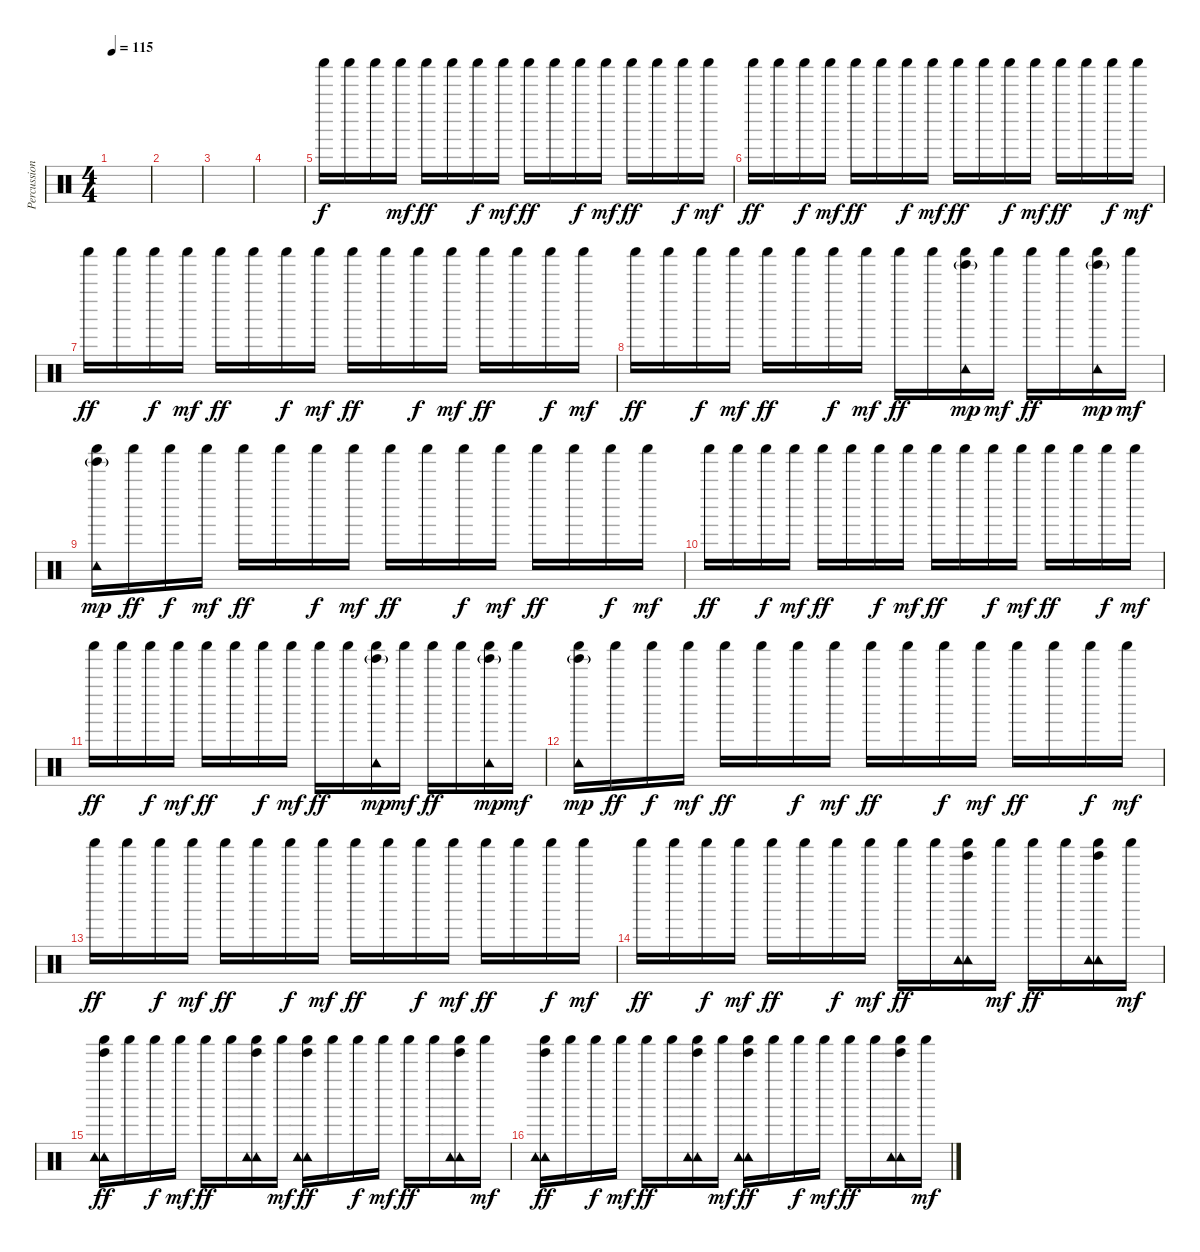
\track ("Percussion" "Percussion") {instrument percussion}
\staff {score}
\articulation defaults
\ts (4 4)
\tempo 115
\clef neutral
\ks c
|
|
|
|
"Shaker (hit)".16 "Shaker (hit)".16 "Shaker (hit)".16{dy f} "Shaker (hit)".16{dy mf} "Shaker (hit)".16{dy ff} "Shaker (hit)".16 "Shaker (hit)".16{dy f} "Shaker (hit)".16{dy mf} "Shaker (hit)".16{dy ff} "Shaker (hit)".16 "Shaker (hit)".16{dy f} "Shaker (hit)".16{dy mf} "Shaker (hit)".16{dy ff} "Shaker (hit)".16 "Shaker (hit)".16{dy f} "Shaker (hit)".16{dy mf} |
"Shaker (hit)".16{dy ff} "Shaker (hit)".16 "Shaker (hit)".16{dy f} "Shaker (hit)".16{dy mf} "Shaker (hit)".16{dy ff} "Shaker (hit)".16 "Shaker (hit)".16{dy f} "Shaker (hit)".16{dy mf} "Shaker (hit)".16{dy ff} "Shaker (hit)".16 "Shaker (hit)".16{dy f} "Shaker (hit)".16{dy mf} "Shaker (hit)".16{dy ff} "Shaker (hit)".16 "Shaker (hit)".16{dy f} "Shaker (hit)".16{dy mf} |
"Shaker (hit)".16{dy ff} "Shaker (hit)".16 "Shaker (hit)".16{dy f} "Shaker (hit)".16{dy mf} "Shaker (hit)".16{dy ff} "Shaker (hit)".16 "Shaker (hit)".16{dy f} "Shaker (hit)".16{dy mf} "Shaker (hit)".16{dy ff} "Shaker (hit)".16 "Shaker (hit)".16{dy f} "Shaker (hit)".16{dy mf} "Shaker (hit)".16{dy ff} "Shaker (hit)".16 "Shaker (hit)".16{dy f} "Shaker (hit)".16{dy mf} |
"Shaker (hit)".16{dy ff} "Shaker (hit)".16 "Shaker (hit)".16{dy f} "Shaker (hit)".16{dy mf} "Shaker (hit)".16{dy ff} "Shaker (hit)".16 "Shaker (hit)".16{dy f} "Shaker (hit)".16{dy mf} "Shaker (hit)".16{dy ff} "Shaker (hit)".16 ("Shaker (hit)" "Tambourine (hit)" "Tinkle Bell (hit)"{g}).16{dy mp} "Shaker (hit)".16{dy mf} "Shaker (hit)".16{dy ff} "Shaker (hit)".16 ("Shaker (hit)" "Tambourine (hit)" "Tinkle Bell (hit)"{g}).16{dy mp} "Shaker (hit)".16{dy mf} |
("Shaker (hit)" "Tambourine (hit)" "Tinkle Bell (hit)"{g}).16{dy mp} "Shaker (hit)".16{dy ff} "Shaker (hit)".16{dy f} "Shaker (hit)".16{dy mf} "Shaker (hit)".16{dy ff} "Shaker (hit)".16 "Shaker (hit)".16{dy f} "Shaker (hit)".16{dy mf} "Shaker (hit)".16{dy ff} "Shaker (hit)".16 "Shaker (hit)".16{dy f} "Shaker (hit)".16{dy mf} "Shaker (hit)".16{dy ff} "Shaker (hit)".16 "Shaker (hit)".16{dy f} "Shaker (hit)".16{dy mf} |
"Shaker (hit)".16{dy ff} "Shaker (hit)".16 "Shaker (hit)".16{dy f} "Shaker (hit)".16{dy mf} "Shaker (hit)".16{dy ff} "Shaker (hit)".16 "Shaker (hit)".16{dy f} "Shaker (hit)".16{dy mf} "Shaker (hit)".16{dy ff} "Shaker (hit)".16 "Shaker (hit)".16{dy f} "Shaker (hit)".16{dy mf} "Shaker (hit)".16{dy ff} "Shaker (hit)".16 "Shaker (hit)".16{dy f} "Shaker (hit)".16{dy mf} |
"Shaker (hit)".16{dy ff} "Shaker (hit)".16 "Shaker (hit)".16{dy f} "Shaker (hit)".16{dy mf} "Shaker (hit)".16{dy ff} "Shaker (hit)".16 "Shaker (hit)".16{dy f} "Shaker (hit)".16{dy mf} "Shaker (hit)".16{dy ff} "Shaker (hit)".16 ("Shaker (hit)" "Tambourine (hit)" "Tinkle Bell (hit)"{g}).16{dy mp} "Shaker (hit)".16{dy mf} "Shaker (hit)".16{dy ff} "Shaker (hit)".16 ("Shaker (hit)" "Tambourine (hit)" "Tinkle Bell (hit)"{g}).16{dy mp} "Shaker (hit)".16{dy mf} |
("Shaker (hit)" "Tambourine (hit)" "Tinkle Bell (hit)"{g}).16{dy mp} "Shaker (hit)".16{dy ff} "Shaker (hit)".16{dy f} "Shaker (hit)".16{dy mf} "Shaker (hit)".16{dy ff} "Shaker (hit)".16 "Shaker (hit)".16{dy f} "Shaker (hit)".16{dy mf} "Shaker (hit)".16{dy ff} "Shaker (hit)".16 "Shaker (hit)".16{dy f} "Shaker (hit)".16{dy mf} "Shaker (hit)".16{dy ff} "Shaker (hit)".16 "Shaker (hit)".16{dy f} "Shaker (hit)".16{dy mf} |
"Shaker (hit)".16{dy ff} "Shaker (hit)".16 "Shaker (hit)".16{dy f} "Shaker (hit)".16{dy mf} "Shaker (hit)".16{dy ff} "Shaker (hit)".16 "Shaker (hit)".16{dy f} "Shaker (hit)".16{dy mf} "Shaker (hit)".16{dy ff} "Shaker (hit)".16 "Shaker (hit)".16{dy f} "Shaker (hit)".16{dy mf} "Shaker (hit)".16{dy ff} "Shaker (hit)".16 "Shaker (hit)".16{dy f} "Shaker (hit)".16{dy mf} |
"Shaker (hit)".16{dy ff} "Shaker (hit)".16 "Shaker (hit)".16{dy f} "Shaker (hit)".16{dy mf} "Shaker (hit)".16{dy ff} "Shaker (hit)".16 "Shaker (hit)".16{dy f} "Shaker (hit)".16{dy mf} "Shaker (hit)".16{dy ff} "Shaker (hit)".16 ("Shaker (hit)" "Tambourine (hit)" "Tambourine (hit)" "Tinkle Bell (hit)").16 "Shaker (hit)".16{dy mf} "Shaker (hit)".16{dy ff} "Shaker (hit)".16 ("Shaker (hit)" "Tambourine (hit)" "Tambourine (hit)" "Tinkle Bell (hit)").16 "Shaker (hit)".16{dy mf} |
("Shaker (hit)" "Tambourine (hit)" "Tambourine (hit)" "Tinkle Bell (hit)").16{dy ff} "Shaker (hit)".16 "Shaker (hit)".16{dy f} "Shaker (hit)".16{dy mf} "Shaker (hit)".16{dy ff} "Shaker (hit)".16 ("Shaker (hit)" "Tambourine (hit)" "Tambourine (hit)" "Tinkle Bell (hit)").16 "Shaker (hit)".16{dy mf} ("Shaker (hit)" "Tambourine (hit)" "Tambourine (hit)" "Tinkle Bell (hit)").16{dy ff} "Shaker (hit)".16 "Shaker (hit)".16{dy f} "Shaker (hit)".16{dy mf} "Shaker (hit)".16{dy ff} "Shaker (hit)".16 ("Shaker (hit)" "Tambourine (hit)" "Tambourine (hit)" "Tinkle Bell (hit)").16 "Shaker (hit)".16{dy mf} |
("Shaker (hit)" "Tambourine (hit)" "Tambourine (hit)" "Tinkle Bell (hit)").16{dy ff} "Shaker (hit)".16 "Shaker (hit)".16{dy f} "Shaker (hit)".16{dy mf} "Shaker (hit)".16{dy ff} "Shaker (hit)".16 ("Shaker (hit)" "Tambourine (hit)" "Tambourine (hit)" "Tinkle Bell (hit)").16 "Shaker (hit)".16{dy mf} ("Shaker (hit)" "Tambourine (hit)" "Tambourine (hit)" "Tinkle Bell (hit)").16{dy ff} "Shaker (hit)".16 "Shaker (hit)".16{dy f} "Shaker (hit)".16{dy mf} "Shaker (hit)".16{dy ff} "Shaker (hit)".16 ("Shaker (hit)" "Tambourine (hit)" "Tambourine (hit)" "Tinkle Bell (hit)").16 "Shaker (hit)".16{dy mf}
